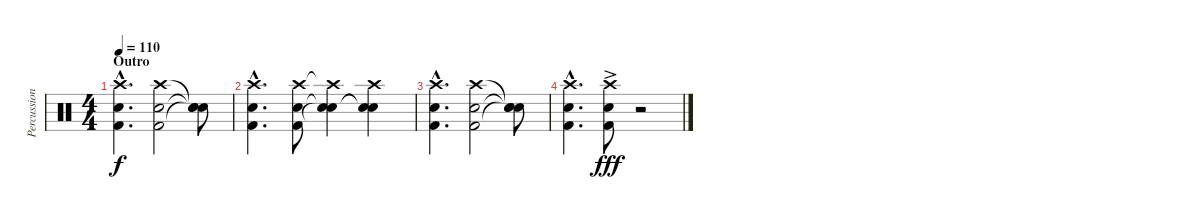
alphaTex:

\track ("Percussion" "Percussion") {instrument percussion}
\staff {score}
\articulation defaults
\ts (4 4)
\section ("" "Outro")
\tempo 110
\clef neutral
\ks c
("Crash high (hit)"{hac} "Snare (hit) 2"{hac} "Kick (hit) 2"{hac}).4{d dy f} ("Crash high (hit)" "Snare (hit) 2" "Kick (hit) 2").2 ("Snare (hit)"{t} "Snare (hit)"{t} "Snare (hit)"{t}).8 |
("Crash high (hit)"{hac} "Snare (hit) 2"{hac} "Kick (hit) 2"{hac}).4{d} ("Crash high (hit)" "Snare (hit) 2" "Kick (hit) 2").8 ("Crash high (hit)"{t} "Snare (hit)"{t} "Snare (hit)"{t}).4 ("Crash high (hit)" "Snare (hit)"{t} "Snare (hit)"{t}).4 |
("Crash high (hit)"{hac} "Snare (hit) 2"{hac} "Kick (hit) 2"{hac}).4{d} ("Crash high (hit)" "Snare (hit) 2" "Kick (hit) 2").2 ("Snare (hit)"{t} "Snare (hit)"{t} "Snare (hit)"{t}).8 |
("Crash high (hit)"{hac} "Snare (hit) 2"{hac} "Kick (hit) 2"{hac}).4{d} ("Crash high (hit)"{ac} "Snare (hit) 2" "Kick (hit) 2").8{dy fff} r.2
